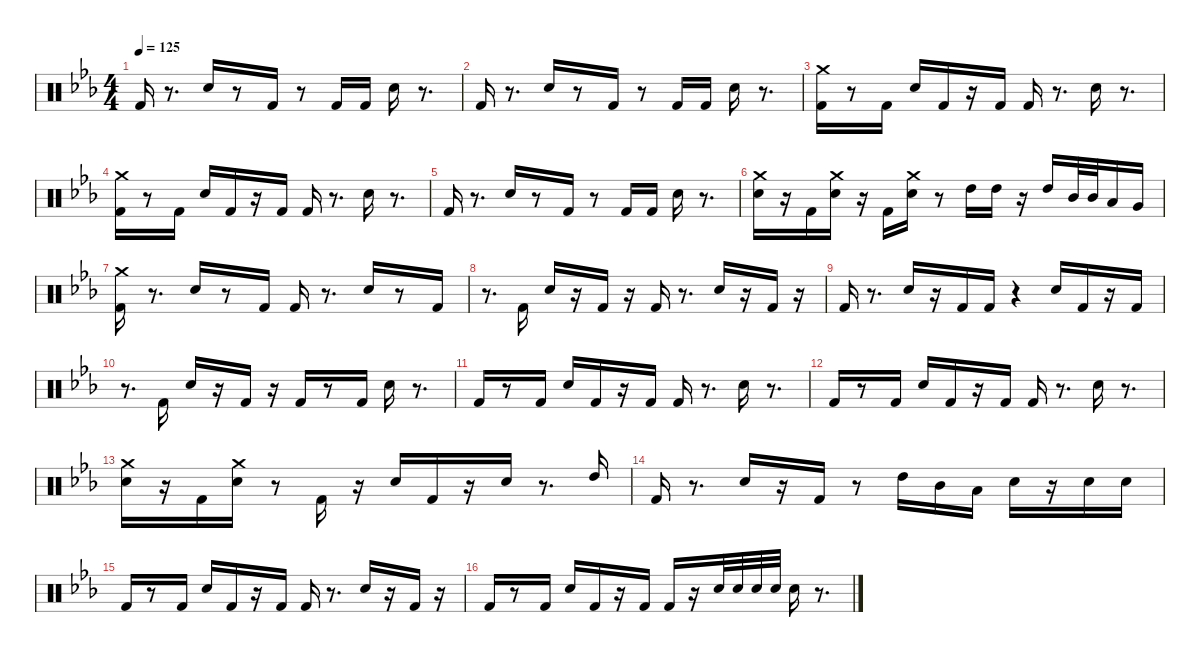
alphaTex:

\defaultSystemsLayout 4
\hideDynamics
\bracketExtendMode nobrackets
\singleTrackTrackNamePolicy hidden
\multiTrackTrackNamePolicy hidden
\firstSystemTrackNameMode fullname
\firstSystemTrackNameOrientation horizontal
\otherSystemsTrackNameOrientation horizontal
\track ("Batterie" "drm.") {instrument percussion}
\staff {score}
\articulation defaults
\ts (4 4)
\tempo 125
\clef neutral
\ks eb "Kick (hit) 2"{acc forcenatural}.16{dy f beam Up}
r.8{d beam Up} "Snare (hit) 2"{acc forcenatural}.16{beam Up} r.8{beam Up} "Kick (hit) 2"{acc forcenatural}.16{beam Up} r.8{beam Up} "Kick (hit) 2"{acc forcenatural}.16{beam Up} "Kick (hit) 2"{acc forcenatural}.16{beam Up} "Snare (hit) 2"{acc forcenatural}.16{beam Down} r.8{d beam Down} |
"Kick (hit) 2"{acc forcenatural}.16{beam Up} r.8{d beam Up} "Snare (hit) 2"{acc forcenatural}.16{beam Up} r.8{beam Up} "Kick (hit) 2"{acc forcenatural}.16{beam Up} r.8{beam Up} "Kick (hit) 2"{acc forcenatural}.16{beam Up} "Kick (hit) 2"{acc forcenatural}.16{beam Up} "Snare (hit) 2"{acc forcenatural}.16{beam Down} r.8{d beam Down} |
("Kick (hit) 2"{acc forcenatural} "Crash medium (hit)"{acc forcenatural}).16{beam Down} r.8{beam Down} "Kick (hit) 2"{acc forcenatural}.16{beam Down} "Snare (hit) 2"{acc forcenatural}.16{beam Up} "Kick (hit) 2"{acc forcenatural}.16{beam Up} r.16{beam Up} "Kick (hit) 2"{acc forcenatural}.16{beam Up} "Kick (hit) 2"{acc forcenatural}.16{beam Up} r.8{d beam Up} "Snare (hit) 2"{acc forcenatural}.16{beam Down} r.8{d beam Down} |
("Kick (hit) 2"{acc forcenatural} "Crash medium (hit)"{acc forcenatural}).16{beam Down} r.8{beam Down} "Kick (hit) 2"{acc forcenatural}.16{beam Down} "Snare (hit) 2"{acc forcenatural}.16{beam Up} "Kick (hit) 2"{acc forcenatural}.16{beam Up} r.16{beam Up} "Kick (hit) 2"{acc forcenatural}.16{beam Up} "Kick (hit) 2"{acc forcenatural}.16{beam Up} r.8{d beam Up} "Snare (hit) 2"{acc forcenatural}.16{beam Down} r.8{d beam Down} |
"Kick (hit) 2"{acc forcenatural}.16{beam Up} r.8{d beam Up} "Snare (hit) 2"{acc forcenatural}.16{beam Up} r.8{beam Up} "Kick (hit) 2"{acc forcenatural}.16{beam Up} r.8{beam Up} "Kick (hit) 2"{acc forcenatural}.16{beam Up} "Kick (hit) 2"{acc forcenatural}.16{beam Up} "Snare (hit) 2"{acc forcenatural}.16{beam Down} r.8{d beam Down} |
("Snare (hit) 2"{acc forcenatural} "Crash medium (hit)"{acc forcenatural}).16{beam Down} r.16{beam Down} "Kick (hit) 2"{acc forcenatural}.16{beam Down} ("Snare (hit) 2"{acc forcenatural} "Crash medium (hit)"{acc forcenatural}).16{beam Down} r.16{beam Down} "Kick (hit) 2"{acc forcenatural}.16{beam Down} ("Snare (hit) 2"{acc forcenatural} "Crash medium (hit)"{acc forcenatural}).16{beam Down} r.8{beam Down} "High Tom (hit)"{acc forcenatural}.16{beam Down} "High Tom (hit)"{acc forcenatural}.16{beam Down} r.16{beam Down} "High Tom (hit)"{acc forcenatural}.16{beam Up} "Mid Tom (hit)"{acc forcenatural}.32{beam Up} "Mid Tom (hit)"{acc forcenatural}.32{beam Up} "Low Tom (hit)"{acc forcenatural}.16{beam Up} "Very Low Tom (hit)"{acc forcenatural}.16{beam Up} |
("Crash medium (hit)"{acc forcenatural} "Kick (hit) 2"{acc forcenatural}).16{beam Down} r.8{d beam Down} "Snare (hit) 2"{acc forcenatural}.16{beam Up} r.8{beam Up} "Kick (hit) 2"{acc forcenatural}.16{beam Up} "Kick (hit) 2"{acc forcenatural}.16{beam Up} r.8{d beam Up} "Snare (hit) 2"{acc forcenatural}.16{beam Up} r.8{beam Up} "Kick (hit) 2"{acc forcenatural}.16{beam Up} |
r.8{d beam Down} "Kick (hit) 2"{acc forcenatural}.16{beam Up} "Snare (hit) 2"{acc forcenatural}.16{beam Up} r.16{beam Up} "Kick (hit) 2"{acc forcenatural}.16{beam Up} r.16{beam Up} "Kick (hit) 2"{acc forcenatural}.16{beam Up} r.8{d beam Up} "Snare (hit) 2"{acc forcenatural}.16{beam Up} r.16{beam Up} "Kick (hit) 2"{acc forcenatural}.16{beam Up} r.16{beam Up} |
"Kick (hit) 2"{acc forcenatural}.16{beam Up} r.8{d beam Up} "Snare (hit) 2"{acc forcenatural}.16{beam Up} r.16{beam Up} "Kick (hit) 2"{acc forcenatural}.16{beam Up} "Kick (hit) 2"{acc forcenatural}.16{beam Up} r.4{beam Up} "Snare (hit) 2"{acc forcenatural}.16{beam Up} "Kick (hit) 2"{acc forcenatural}.16{beam Up} r.16{beam Up} "Kick (hit) 2"{acc forcenatural}.16{beam Up} |
r.8{d beam Down} "Kick (hit) 2"{acc forcenatural}.16{beam Up} "Snare (hit) 2"{acc forcenatural}.16{beam Up} r.16{beam Up} "Kick (hit) 2"{acc forcenatural}.16{beam Up} r.16{beam Up} "Kick (hit) 2"{acc forcenatural}.16{beam Up} r.8{beam Up} "Kick (hit) 2"{acc forcenatural}.16{beam Up} "Snare (hit) 2"{acc forcenatural}.16{beam Down} r.8{d beam Down} |
"Kick (hit) 2"{acc forcenatural}.16{beam Up} r.8{beam Up} "Kick (hit) 2"{acc forcenatural}.16{beam Up} "Snare (hit) 2"{acc forcenatural}.16{beam Up} "Kick (hit) 2"{acc forcenatural}.16{beam Up} r.16{beam Up} "Kick (hit) 2"{acc forcenatural}.16{beam Up} "Kick (hit) 2"{acc forcenatural}.16{beam Up} r.8{d beam Up} "Snare (hit) 2"{acc forcenatural}.16{beam Down} r.8{d beam Down} |
"Kick (hit) 2"{acc forcenatural}.16{beam Up} r.8{beam Up} "Kick (hit) 2"{acc forcenatural}.16{beam Up} "Snare (hit) 2"{acc forcenatural}.16{beam Up} "Kick (hit) 2"{acc forcenatural}.16{beam Up} r.16{beam Up} "Kick (hit) 2"{acc forcenatural}.16{beam Up} "Kick (hit) 2"{acc forcenatural}.16{beam Up} r.8{d beam Up} "Snare (hit) 2"{acc forcenatural}.16{beam Down} r.8{d beam Down} |
("Crash medium (hit)"{acc forcenatural} "Snare (hit) 2"{acc forcenatural}).16{beam Down} r.16{beam Down} "Kick (hit) 2"{acc forcenatural}.16{beam Down} ("Crash medium (hit)"{acc forcenatural} "Snare (hit) 2"{acc forcenatural}).16{beam Down} r.8{beam Down} "Kick (hit) 2"{acc forcenatural}.16{beam Up} r.16{beam Up} "Snare (hit) 2"{acc forcenatural}.16{beam Up} "Kick (hit) 2"{acc forcenatural}.16{beam Up} r.16{beam Up} "Snare (hit) 2"{acc forcenatural}.16{beam Up} r.8{d beam Up} "High Tom (hit)"{acc forcenatural}.16{beam Down} |
"Kick (hit) 2"{acc forcenatural}.16{beam Up} r.8{d beam Up} "Snare (hit) 2"{acc forcenatural}.16{beam Up} r.16{beam Up} "Kick (hit) 2"{acc forcenatural}.16{beam Up} r.8{beam Up} "High Tom (hit)"{acc forcenatural}.16{beam Down} "Mid Tom (hit)"{acc forcenatural}.16{beam Down} "Low Tom (hit)"{acc forcenatural}.16{beam Down} "Snare (hit) 2"{acc forcenatural}.16{beam Down} r.16{beam Down} "Snare (hit) 2"{acc forcenatural}.16{beam Down} "Snare (hit) 2"{acc forcenatural}.16{beam Down} |
"Kick (hit) 2"{acc forcenatural}.16{beam Up} r.8{beam Up} "Kick (hit) 2"{acc forcenatural}.16{beam Up} "Snare (hit) 2"{acc forcenatural}.16{beam Up} "Kick (hit) 2"{acc forcenatural}.16{beam Up} r.16{beam Up} "Kick (hit) 2"{acc forcenatural}.16{beam Up} "Kick (hit) 2"{acc forcenatural}.16{beam Up} r.8{d beam Up} "Snare (hit) 2"{acc forcenatural}.16{beam Up} r.16{beam Up} "Kick (hit) 2"{acc forcenatural}.16{beam Up} r.16{beam Up} |
"Kick (hit) 2"{acc forcenatural}.16{beam Up} r.8{beam Up} "Kick (hit) 2"{acc forcenatural}.16{beam Up} "Snare (hit) 2"{acc forcenatural}.16{beam Up} "Kick (hit) 2"{acc forcenatural}.16{beam Up} r.16{beam Up} "Kick (hit) 2"{acc forcenatural}.16{beam Up} "Kick (hit) 2"{acc forcenatural}.16{beam Up} r.16{beam Up} "Snare (hit) 2"{acc forcenatural}.32{beam Up} "Snare (hit) 2"{acc forcenatural}.32{beam Up} "Snare (hit) 2"{acc forcenatural}.32{beam Up} "Snare (hit) 2"{acc forcenatural}.32{beam Up} "Snare (hit) 2"{acc forcenatural}.16{beam Down} r.8{d beam Down}
